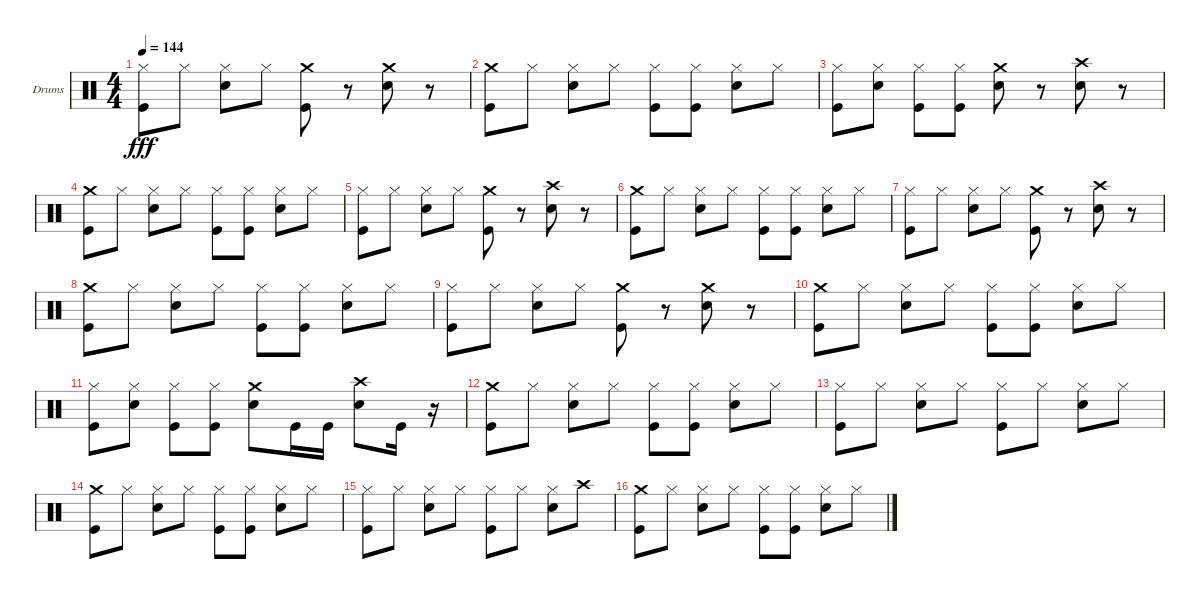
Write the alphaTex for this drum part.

\bracketExtendMode groupsimilarinstruments
\firstSystemTrackNameOrientation horizontal
\otherSystemsTrackNameOrientation horizontal
\track ("Drumkit" "Drums") {instrument percussion}
\staff {score}
\articulation defaults
\ts (4 4)
\tempo 144
\clef neutral
\ks c
("Hi-Hat (closed)" "Kick (hit)").8{dy fff} "Hi-Hat (closed)".8 ("Hi-Hat (closed)" "Snare (hit) 2").8 "Hi-Hat (closed)".8 ("Crash medium (hit)" "Kick (hit)").8 r.8 ("Snare (hit) 2" "Crash medium (hit)").8 r.8 |
("Kick (hit)" "Crash medium (hit)").8 "Hi-Hat (closed)".8 ("Hi-Hat (closed)" "Snare (hit) 2").8 "Hi-Hat (closed)".8 ("Hi-Hat (closed)" "Kick (hit)").8 ("Hi-Hat (closed)" "Kick (hit)").8 ("Hi-Hat (closed)" "Snare (hit) 2").8 "Hi-Hat (closed)".8 |
("Hi-Hat (closed)" "Kick (hit)").8 ("Hi-Hat (closed)" "Snare (hit) 2").8 ("Hi-Hat (closed)" "Kick (hit)").8 ("Hi-Hat (closed)" "Kick (hit)").8 ("Crash medium (hit)" "Snare (hit) 2").8 r.8 ("Snare (hit) 2" "Crash high (hit)").8 r.8 |
("Kick (hit)" "Crash medium (hit)").8 "Hi-Hat (closed)".8 ("Hi-Hat (closed)" "Snare (hit) 2").8 "Hi-Hat (closed)".8 ("Hi-Hat (closed)" "Kick (hit)").8 ("Hi-Hat (closed)" "Kick (hit)").8 ("Hi-Hat (closed)" "Snare (hit) 2").8 "Hi-Hat (closed)".8 |
("Hi-Hat (closed)" "Kick (hit)").8 "Hi-Hat (closed)".8 ("Hi-Hat (closed)" "Snare (hit) 2").8 "Hi-Hat (closed)".8 ("Crash medium (hit)" "Kick (hit)").8 r.8 ("Snare (hit) 2" "Crash high (hit)").8 r.8 |
("Kick (hit)" "Crash medium (hit)").8 "Hi-Hat (closed)".8 ("Hi-Hat (closed)" "Snare (hit) 2").8 "Hi-Hat (closed)".8 ("Hi-Hat (closed)" "Kick (hit)").8 ("Hi-Hat (closed)" "Kick (hit)").8 ("Hi-Hat (closed)" "Snare (hit) 2").8 "Hi-Hat (closed)".8 |
("Hi-Hat (closed)" "Kick (hit)").8 "Hi-Hat (closed)".8 ("Hi-Hat (closed)" "Snare (hit) 2").8 "Hi-Hat (closed)".8 ("Crash medium (hit)" "Kick (hit)").8 r.8 ("Snare (hit) 2" "Crash high (hit)").8 r.8 |
("Kick (hit)" "Crash medium (hit)").8 "Hi-Hat (closed)".8 ("Hi-Hat (closed)" "Snare (hit) 2").8 "Hi-Hat (closed)".8 ("Hi-Hat (closed)" "Kick (hit)").8 ("Hi-Hat (closed)" "Kick (hit)").8 ("Hi-Hat (closed)" "Snare (hit) 2").8 "Hi-Hat (closed)".8 |
("Hi-Hat (closed)" "Kick (hit)").8 "Hi-Hat (closed)".8 ("Hi-Hat (closed)" "Snare (hit) 2").8 "Hi-Hat (closed)".8 ("Crash medium (hit)" "Kick (hit)").8 r.8 ("Snare (hit) 2" "Crash medium (hit)").8 r.8 |
("Kick (hit)" "Crash medium (hit)").8 "Hi-Hat (closed)".8 ("Hi-Hat (closed)" "Snare (hit) 2").8 "Hi-Hat (closed)".8 ("Hi-Hat (closed)" "Kick (hit)").8 ("Hi-Hat (closed)" "Kick (hit)").8 ("Hi-Hat (closed)" "Snare (hit) 2").8 "Hi-Hat (closed)".8 |
("Hi-Hat (closed)" "Kick (hit)").8 ("Hi-Hat (closed)" "Snare (hit) 2").8 ("Hi-Hat (closed)" "Kick (hit)").8 ("Hi-Hat (closed)" "Kick (hit)").8 ("Crash medium (hit)" "Snare (hit) 2").8 "Kick (hit)".16 "Kick (hit)".16 ("Crash high (hit)" "Snare (hit) 2").8 "Kick (hit)".16 r.16 |
("Kick (hit)" "Crash medium (hit)").8 "Hi-Hat (closed)".8 ("Hi-Hat (closed)" "Snare (hit) 2").8 "Hi-Hat (closed)".8 ("Hi-Hat (closed)" "Kick (hit)").8 ("Hi-Hat (closed)" "Kick (hit)").8 ("Hi-Hat (closed)" "Snare (hit) 2").8 "Hi-Hat (closed)".8 |
("Hi-Hat (closed)" "Kick (hit)").8 "Hi-Hat (closed)".8 ("Hi-Hat (closed)" "Snare (hit) 2").8 "Hi-Hat (closed)".8 ("Kick (hit)" "Hi-Hat (closed)").8 "Hi-Hat (closed)".8 ("Snare (hit) 2" "Hi-Hat (closed)").8 "Hi-Hat (closed)".8 |
("Kick (hit)" "Crash medium (hit)").8 "Hi-Hat (closed)".8 ("Hi-Hat (closed)" "Snare (hit) 2").8 "Hi-Hat (closed)".8 ("Hi-Hat (closed)" "Kick (hit)").8 ("Hi-Hat (closed)" "Kick (hit)").8 ("Hi-Hat (closed)" "Snare (hit) 2").8 "Hi-Hat (closed)".8 |
("Hi-Hat (closed)" "Kick (hit)").8 "Hi-Hat (closed)".8 ("Hi-Hat (closed)" "Snare (hit) 2").8 "Hi-Hat (closed)".8 ("Kick (hit)" "Hi-Hat (closed)").8 "Hi-Hat (closed)".8 ("Snare (hit) 2" "Hi-Hat (closed)").8 "Crash high (hit)".8 |
("Kick (hit)" "Crash medium (hit)").8 "Hi-Hat (closed)".8 ("Hi-Hat (closed)" "Snare (hit) 2").8 "Hi-Hat (closed)".8 ("Hi-Hat (closed)" "Kick (hit)").8 ("Hi-Hat (closed)" "Kick (hit)").8 ("Hi-Hat (closed)" "Snare (hit) 2").8 "Hi-Hat (closed)".8
